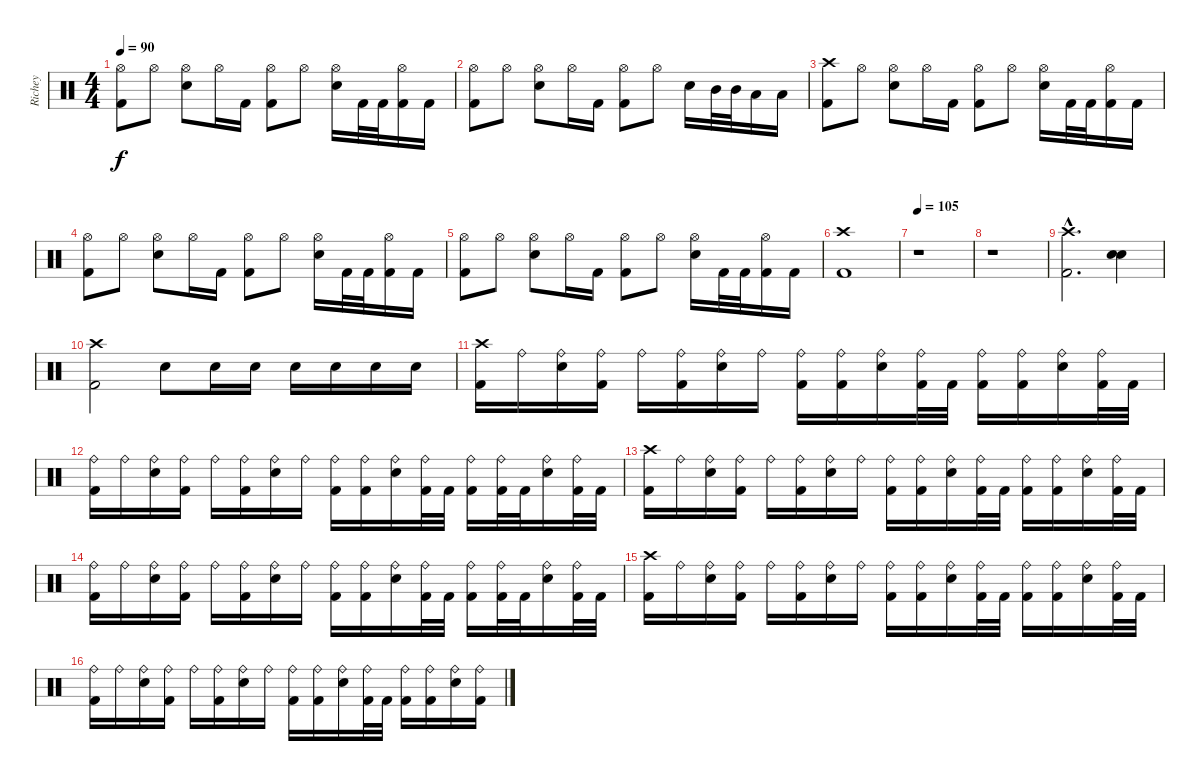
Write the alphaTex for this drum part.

\track ("Richey" "Richey") {instrument percussion}
\staff {score}
\articulation defaults
\ts (4 4)
\tempo 90
\clef neutral
\ks c
("Hi-Hat (open)" "Kick (hit) 2").8{dy f} "Hi-Hat (open)".8 ("Hi-Hat (open)" "Snare (hit) 2").8 "Hi-Hat (open)".16 "Kick (hit) 2".16 ("Hi-Hat (open)" "Kick (hit) 2").8 "Hi-Hat (open)".8 ("Hi-Hat (open)" "Snare (hit) 2").16 "Kick (hit) 2".32 "Kick (hit) 2".32 ("Hi-Hat (open)" "Kick (hit) 2").16 "Kick (hit) 2".16 |
("Hi-Hat (open)" "Kick (hit) 2").8 "Hi-Hat (open)".8 ("Hi-Hat (open)" "Snare (hit) 2").8 "Hi-Hat (open)".16 "Kick (hit) 2".16 ("Hi-Hat (open)" "Kick (hit) 2").8 "Hi-Hat (open)".8 "Snare (hit) 2".16 "Mid Tom (hit)".32 "Mid Tom (hit)".32 "Low Tom (hit)".16 "Low Tom (hit)".16 |
("Crash high (hit)" "Kick (hit) 2").8 "Hi-Hat (open)".8 ("Hi-Hat (open)" "Snare (hit) 2").8 "Hi-Hat (open)".16 "Kick (hit) 2".16 ("Hi-Hat (open)" "Kick (hit) 2").8 "Hi-Hat (open)".8 ("Hi-Hat (open)" "Snare (hit) 2").16 "Kick (hit) 2".32 "Kick (hit) 2".32 ("Hi-Hat (open)" "Kick (hit) 2").16 "Kick (hit) 2".16 |
("Hi-Hat (open)" "Kick (hit) 2").8 "Hi-Hat (open)".8 ("Hi-Hat (open)" "Snare (hit) 2").8 "Hi-Hat (open)".16 "Kick (hit) 2".16 ("Hi-Hat (open)" "Kick (hit) 2").8 "Hi-Hat (open)".8 ("Hi-Hat (open)" "Snare (hit) 2").16 "Kick (hit) 2".32 "Kick (hit) 2".32 ("Hi-Hat (open)" "Kick (hit) 2").16 "Kick (hit) 2".16 |
("Hi-Hat (open)" "Kick (hit) 2").8 "Hi-Hat (open)".8 ("Hi-Hat (open)" "Snare (hit) 2").8 "Hi-Hat (open)".16 "Kick (hit) 2".16 ("Hi-Hat (open)" "Kick (hit) 2").8 "Hi-Hat (open)".8 ("Hi-Hat (open)" "Snare (hit) 2").16 "Kick (hit) 2".32 "Kick (hit) 2".32 ("Hi-Hat (open)" "Kick (hit) 2").16 "Kick (hit) 2".16 |
("Crash high (hit)" "Kick (hit) 2").1 |
\tempo 105
r.1 |
r.1 |
("Crash high (hit)"{hac} "Kick (hit) 2"{hac}).2{d} ("Snare (hit) 2" "Snare (hit) 2").4 |
("Crash high (hit)" "Kick (hit) 2").2 "Snare (hit) 2".8 "Snare (hit) 2".16 "Snare (hit) 2".16 "Snare (hit) 2".16 "Snare (hit) 2".16 "Snare (hit) 2".16 "Snare (hit) 2".16 |
("Crash high (hit)" "Kick (hit) 2").16 "Ride (bell)".16 ("Ride (bell)" "Snare (hit) 2").16 ("Ride (bell)" "Kick (hit) 2").16 "Ride (bell)".16 ("Ride (bell)" "Kick (hit) 2").16 ("Ride (bell)" "Snare (hit) 2").16 "Ride (bell)".16 ("Ride (bell)" "Kick (hit) 2").16 ("Ride (bell)" "Kick (hit) 2").16 ("Ride (bell)" "Snare (hit) 2").16 ("Ride (bell)" "Kick (hit) 2").32 "Kick (hit) 2".32 ("Ride (bell)" "Kick (hit) 2").16 ("Ride (bell)" "Kick (hit) 2").16 ("Ride (bell)" "Snare (hit) 2").16 ("Ride (bell)" "Kick (hit) 2").32 "Kick (hit) 2".32 |
("Ride (bell)" "Kick (hit) 2").16 "Ride (bell)".16 ("Ride (bell)" "Snare (hit) 2").16 ("Ride (bell)" "Kick (hit) 2").16 "Ride (bell)".16 ("Ride (bell)" "Kick (hit) 2").16 ("Ride (bell)" "Snare (hit) 2").16 "Ride (bell)".16 ("Ride (bell)" "Kick (hit) 2").16 ("Ride (bell)" "Kick (hit) 2").16 ("Ride (bell)" "Snare (hit) 2").16 ("Ride (bell)" "Kick (hit) 2").32 "Kick (hit) 2".32 ("Ride (bell)" "Kick (hit) 2").16 ("Ride (bell)" "Kick (hit) 2").32 "Kick (hit) 2".32 ("Ride (bell)" "Snare (hit) 2").16 ("Ride (bell)" "Kick (hit) 2").32 "Kick (hit) 2".32 |
("Crash high (hit)" "Kick (hit) 2").16 "Ride (bell)".16 ("Ride (bell)" "Snare (hit) 2").16 ("Ride (bell)" "Kick (hit) 2").16 "Ride (bell)".16 ("Ride (bell)" "Kick (hit) 2").16 ("Ride (bell)" "Snare (hit) 2").16 "Ride (bell)".16 ("Ride (bell)" "Kick (hit) 2").16 ("Ride (bell)" "Kick (hit) 2").16 ("Ride (bell)" "Snare (hit) 2").16 ("Ride (bell)" "Kick (hit) 2").32 "Kick (hit) 2".32 ("Ride (bell)" "Kick (hit) 2").16 ("Ride (bell)" "Kick (hit) 2").16 ("Ride (bell)" "Snare (hit) 2").16 ("Ride (bell)" "Kick (hit) 2").32 "Kick (hit) 2".32 |
("Ride (bell)" "Kick (hit) 2").16 "Ride (bell)".16 ("Ride (bell)" "Snare (hit) 2").16 ("Ride (bell)" "Kick (hit) 2").16 "Ride (bell)".16 ("Ride (bell)" "Kick (hit) 2").16 ("Ride (bell)" "Snare (hit) 2").16 "Ride (bell)".16 ("Ride (bell)" "Kick (hit) 2").16 ("Ride (bell)" "Kick (hit) 2").16 ("Ride (bell)" "Snare (hit) 2").16 ("Ride (bell)" "Kick (hit) 2").32 "Kick (hit) 2".32 ("Ride (bell)" "Kick (hit) 2").16 ("Ride (bell)" "Kick (hit) 2").32 "Kick (hit) 2".32 ("Ride (bell)" "Snare (hit) 2").16 ("Ride (bell)" "Kick (hit) 2").32 "Kick (hit) 2".32 |
("Crash high (hit)" "Kick (hit) 2").16 "Ride (bell)".16 ("Ride (bell)" "Snare (hit) 2").16 ("Ride (bell)" "Kick (hit) 2").16 "Ride (bell)".16 ("Ride (bell)" "Kick (hit) 2").16 ("Ride (bell)" "Snare (hit) 2").16 "Ride (bell)".16 ("Ride (bell)" "Kick (hit) 2").16 ("Ride (bell)" "Kick (hit) 2").16 ("Ride (bell)" "Snare (hit) 2").16 ("Ride (bell)" "Kick (hit) 2").32 "Kick (hit) 2".32 ("Ride (bell)" "Kick (hit) 2").16 ("Ride (bell)" "Kick (hit) 2").16 ("Ride (bell)" "Snare (hit) 2").16 ("Ride (bell)" "Kick (hit) 2").32 "Kick (hit) 2".32 |
("Ride (bell)" "Kick (hit) 2").16 "Ride (bell)".16 ("Ride (bell)" "Snare (hit) 2").16 ("Ride (bell)" "Kick (hit) 2").16 "Ride (bell)".16 ("Ride (bell)" "Kick (hit) 2").16 ("Ride (bell)" "Snare (hit) 2").16 "Ride (bell)".16 ("Ride (bell)" "Kick (hit) 2").16 ("Ride (bell)" "Kick (hit) 2").16 ("Ride (bell)" "Snare (hit) 2").16 ("Ride (bell)" "Kick (hit) 2").32 "Kick (hit) 2".32 ("Ride (bell)" "Kick (hit) 2").16 ("Ride (bell)" "Kick (hit) 2").16 ("Ride (bell)" "Snare (hit) 2").16 ("Ride (bell)" "Kick (hit) 2").16
